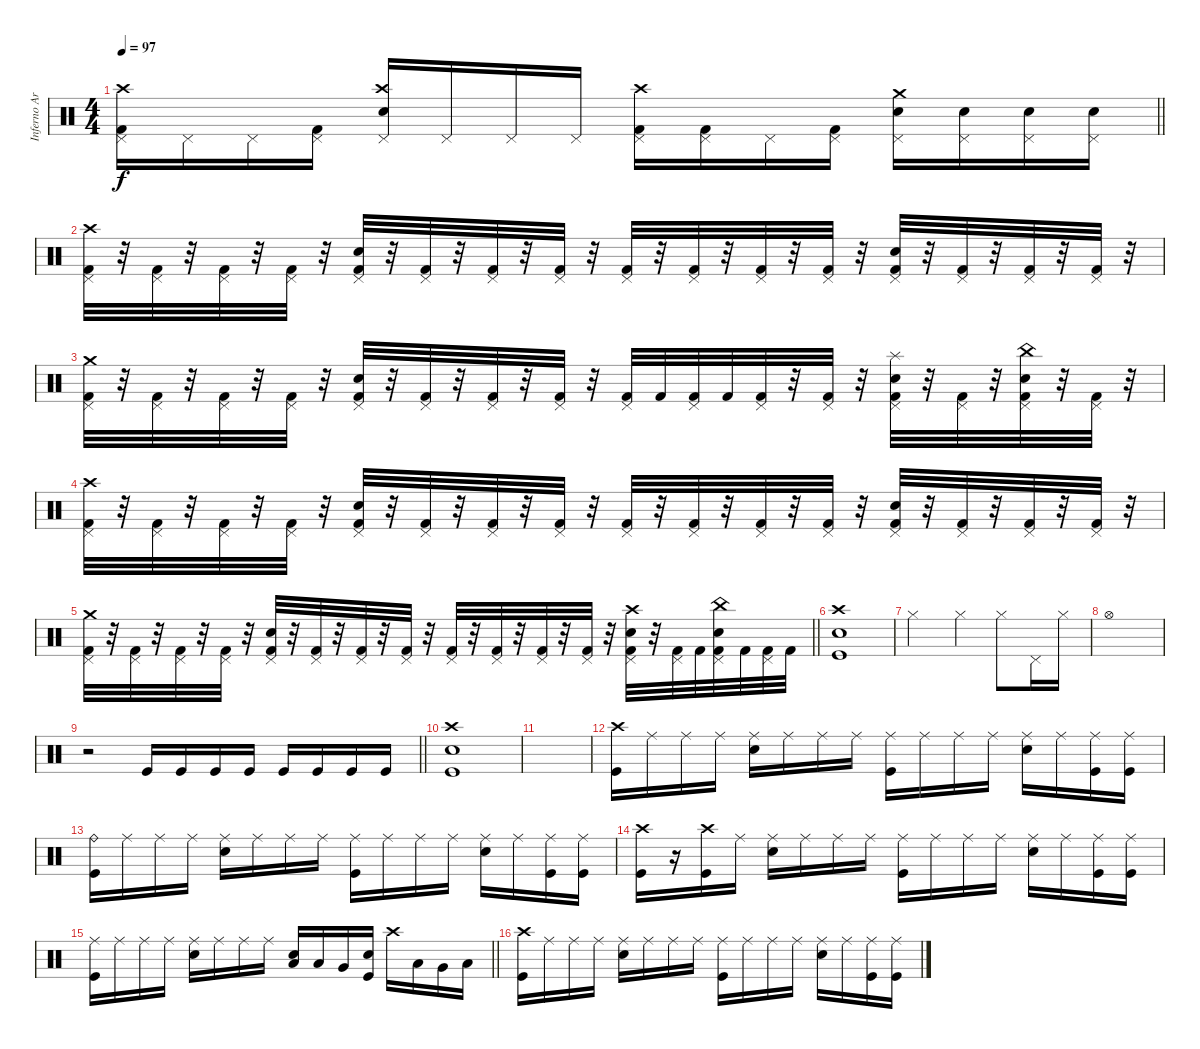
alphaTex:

\track ("Inferno Art" "Inferno Ar") {instrument percussion bank 7}
\staff {score}
\articulation defaults
\ts (4 4)
\tempo 97
\clef neutral
\barLineRight lightlight
\ks c
("Pedal Hi-Hat (hit)" "Kick (hit) 2" "Crash high (hit)").16{dy f} "Pedal Hi-Hat (hit)".16 "Pedal Hi-Hat (hit)".16 ("Pedal Hi-Hat (hit)" "Kick (hit) 2").16 ("Pedal Hi-Hat (hit)" "Electric Snare (hit)" "Crash high (hit)").16 "Pedal Hi-Hat (hit)".16 "Pedal Hi-Hat (hit)".16 "Pedal Hi-Hat (hit)".16 ("Pedal Hi-Hat (hit)" "Kick (hit) 2" "Crash high (hit)").16 ("Pedal Hi-Hat (hit)" "Kick (hit) 2").16 "Pedal Hi-Hat (hit)".16 ("Pedal Hi-Hat (hit)" "Kick (hit) 2").16 ("Pedal Hi-Hat (hit)" "Electric Snare (hit)" "Crash medium (hit)").16 ("Pedal Hi-Hat (hit)" "Electric Snare (hit)").16 ("Pedal Hi-Hat (hit)" "Electric Snare (hit)").16 ("Pedal Hi-Hat (hit)" "Electric Snare (hit)").16 |
("Pedal Hi-Hat (hit)" "Kick (hit) 2" "Crash high (hit)").32 r.32 ("Pedal Hi-Hat (hit)" "Kick (hit) 2").32 r.32 ("Pedal Hi-Hat (hit)" "Kick (hit) 2").32 r.32 ("Pedal Hi-Hat (hit)" "Kick (hit) 2").32 r.32 ("Pedal Hi-Hat (hit)" "Electric Snare (hit)" "Kick (hit) 2").32 r.32 ("Pedal Hi-Hat (hit)" "Kick (hit) 2").32 r.32 ("Pedal Hi-Hat (hit)" "Kick (hit) 2").32 r.32 ("Pedal Hi-Hat (hit)" "Kick (hit) 2").32 r.32 ("Pedal Hi-Hat (hit)" "Kick (hit) 2").32 r.32 ("Pedal Hi-Hat (hit)" "Kick (hit) 2").32 r.32 ("Pedal Hi-Hat (hit)" "Kick (hit) 2").32 r.32 ("Pedal Hi-Hat (hit)" "Kick (hit) 2").32 r.32 ("Pedal Hi-Hat (hit)" "Electric Snare (hit)" "Kick (hit) 2").32 r.32 ("Pedal Hi-Hat (hit)" "Kick (hit) 2").32 r.32 ("Pedal Hi-Hat (hit)" "Kick (hit) 2").32 r.32 ("Pedal Hi-Hat (hit)" "Kick (hit) 2").32 r.32 |
("Pedal Hi-Hat (hit)" "Kick (hit) 2" "Crash medium (hit)").32 r.32 ("Pedal Hi-Hat (hit)" "Kick (hit) 2").32 r.32 ("Pedal Hi-Hat (hit)" "Kick (hit) 2").32 r.32 ("Pedal Hi-Hat (hit)" "Kick (hit) 2").32 r.32 ("Pedal Hi-Hat (hit)" "Electric Snare (hit)" "Kick (hit) 2").32 r.32 ("Pedal Hi-Hat (hit)" "Kick (hit) 2").32 r.32 ("Pedal Hi-Hat (hit)" "Kick (hit) 2").32 r.32 ("Pedal Hi-Hat (hit)" "Kick (hit) 2").32 r.32 ("Pedal Hi-Hat (hit)" "Kick (hit) 2").32 "Kick (hit) 2".32 ("Pedal Hi-Hat (hit)" "Kick (hit) 2").32 "Kick (hit) 2".32 ("Pedal Hi-Hat (hit)" "Kick (hit) 2").32 r.32 ("Pedal Hi-Hat (hit)" "Kick (hit) 2").32 r.32 ("Pedal Hi-Hat (hit)" "Electric Snare (hit)" "Kick (hit) 2" "Splash (hit)").32 r.32 ("Pedal Hi-Hat (hit)" "Kick (hit) 2").32 r.32 ("Pedal Hi-Hat (hit)" "Electric Snare (hit)" "Kick (hit) 2" "China (hit)").32 r.32 ("Pedal Hi-Hat (hit)" "Kick (hit) 2").32 r.32 |
("Pedal Hi-Hat (hit)" "Kick (hit) 2" "Crash high (hit)").32 r.32 ("Pedal Hi-Hat (hit)" "Kick (hit) 2").32 r.32 ("Pedal Hi-Hat (hit)" "Kick (hit) 2").32 r.32 ("Pedal Hi-Hat (hit)" "Kick (hit) 2").32 r.32 ("Pedal Hi-Hat (hit)" "Electric Snare (hit)" "Kick (hit) 2").32 r.32 ("Pedal Hi-Hat (hit)" "Kick (hit) 2").32 r.32 ("Pedal Hi-Hat (hit)" "Kick (hit) 2").32 r.32 ("Pedal Hi-Hat (hit)" "Kick (hit) 2").32 r.32 ("Pedal Hi-Hat (hit)" "Kick (hit) 2").32 r.32 ("Pedal Hi-Hat (hit)" "Kick (hit) 2").32 r.32 ("Pedal Hi-Hat (hit)" "Kick (hit) 2").32 r.32 ("Pedal Hi-Hat (hit)" "Kick (hit) 2").32 r.32 ("Pedal Hi-Hat (hit)" "Electric Snare (hit)" "Kick (hit) 2").32 r.32 ("Pedal Hi-Hat (hit)" "Kick (hit) 2").32 r.32 ("Pedal Hi-Hat (hit)" "Kick (hit) 2").32 r.32 ("Pedal Hi-Hat (hit)" "Kick (hit) 2").32 r.32 |
\barLineRight lightlight
("Pedal Hi-Hat (hit)" "Kick (hit) 2" "Crash medium (hit)").32 r.32 ("Pedal Hi-Hat (hit)" "Kick (hit) 2").32 r.32 ("Pedal Hi-Hat (hit)" "Kick (hit) 2").32 r.32 ("Pedal Hi-Hat (hit)" "Kick (hit) 2").32 r.32 ("Pedal Hi-Hat (hit)" "Electric Snare (hit)" "Kick (hit) 2").32 r.32 ("Pedal Hi-Hat (hit)" "Kick (hit) 2").32 r.32 ("Pedal Hi-Hat (hit)" "Kick (hit) 2").32 r.32 ("Pedal Hi-Hat (hit)" "Kick (hit) 2").32 r.32 ("Pedal Hi-Hat (hit)" "Kick (hit) 2").32 r.32 ("Pedal Hi-Hat (hit)" "Kick (hit) 2").32 r.32 ("Pedal Hi-Hat (hit)" "Kick (hit) 2").32 r.32 ("Pedal Hi-Hat (hit)" "Kick (hit) 2").32 r.32 ("Pedal Hi-Hat (hit)" "Electric Snare (hit)" "Kick (hit) 2" "Crash high (hit)").32 r.32 ("Pedal Hi-Hat (hit)" "Kick (hit) 2").32 "Kick (hit) 2".32 ("Pedal Hi-Hat (hit)" "Electric Snare (hit)" "Kick (hit) 2" "China (hit)").32 "Kick (hit) 2".32 ("Pedal Hi-Hat (hit)" "Kick (hit) 2").32 "Kick (hit) 2".32 |
("Kick (hit)" "Crash high (hit)" "Electric Snare (hit)").1 |
"Hi-Hat (closed)".2 "Hi-Hat (closed)".4 "Hi-Hat (closed)".8 "Pedal Hi-Hat (hit)".16 "Hi-Hat (closed)".16 |
"Hi-Hat (open)".1 |
\barLineRight lightlight
r.2 "Kick (hit)".16 "Kick (hit)".16 "Kick (hit)".16 "Kick (hit)".16 "Kick (hit)".16 "Kick (hit)".16 "Kick (hit)".16 "Kick (hit)".16 |
("Kick (hit)" "Electric Snare (hit)" "Crash high (hit)").1 |
|
("Crash high (hit)" "Kick (hit)").16 "Ride (middle)".16 "Ride (middle)".16 "Ride (middle)".16 ("Ride (middle)" "Electric Snare (hit)").16 "Ride (middle)".16 "Ride (middle)".16 "Ride (middle)".16 ("Ride (middle)" "Kick (hit)").16 "Ride (middle)".16 "Ride (middle)".16 "Ride (middle)".16 ("Ride (middle)" "Electric Snare (hit)").16 "Ride (middle)".16 ("Ride (middle)" "Kick (hit)").16 ("Ride (middle)" "Kick (hit)").16 |
("Ride (bell)" "Kick (hit)").16 "Ride (middle)".16 "Ride (middle)".16 "Ride (middle)".16 ("Ride (middle)" "Electric Snare (hit)").16 "Ride (middle)".16 "Ride (middle)".16 "Ride (middle)".16 ("Ride (middle)" "Kick (hit)").16 "Ride (middle)".16 "Ride (middle)".16 "Ride (middle)".16 ("Ride (middle)" "Electric Snare (hit)").16 "Ride (middle)".16 ("Ride (middle)" "Kick (hit)").16 ("Ride (middle)" "Kick (hit)").16 |
("Crash high (hit)" "Kick (hit)").16 r.16 ("Crash high (hit)" "Kick (hit)").16 "Ride (middle)".16 ("Ride (middle)" "Electric Snare (hit)").16 "Ride (middle)".16 "Ride (middle)".16 "Ride (middle)".16 ("Ride (middle)" "Kick (hit)").16 "Ride (middle)".16 "Ride (middle)".16 "Ride (middle)".16 ("Ride (middle)" "Electric Snare (hit)").16 "Ride (middle)".16 ("Ride (middle)" "Kick (hit)").16 ("Ride (middle)" "Kick (hit)").16 |
\barLineRight lightlight
("Ride (middle)" "Kick (hit)").16 "Ride (middle)".16 "Ride (middle)".16 "Ride (middle)".16 ("Ride (middle)" "Electric Snare (hit)").16 "Ride (middle)".16 "Ride (middle)".16 "Ride (middle)".16 ("Electric Snare (hit)" "Low Floor Tom (hit)").16 "Low Tom (hit)".16 "Very Low Tom (hit)".16 ("Electric Snare (hit)" "Kick (hit)").16 "Crash high (hit)".16 "Low Tom (hit)".16 "Very Low Tom (hit)".16 "Low Floor Tom (hit)".16 |
("Crash high (hit)" "Kick (hit)").16 "Ride (middle)".16 "Ride (middle)".16 "Ride (middle)".16 ("Ride (middle)" "Electric Snare (hit)").16 "Ride (middle)".16 "Ride (middle)".16 "Ride (middle)".16 ("Ride (middle)" "Kick (hit)").16 "Ride (middle)".16 "Ride (middle)".16 "Ride (middle)".16 ("Ride (middle)" "Electric Snare (hit)").16 "Ride (middle)".16 ("Ride (middle)" "Kick (hit)").16 ("Ride (middle)" "Kick (hit)").16
